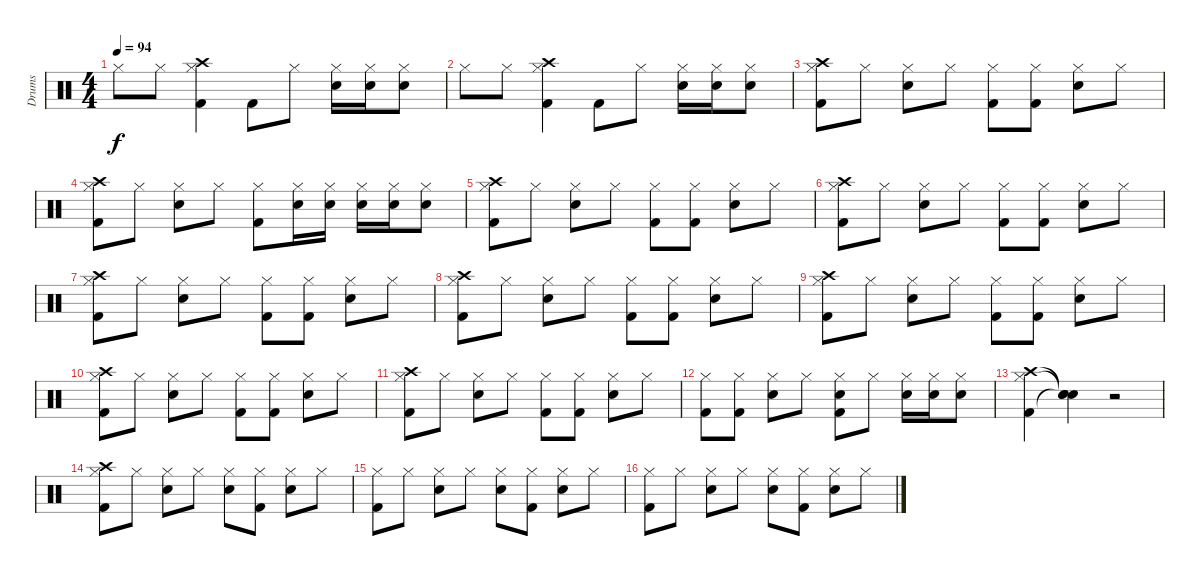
\track ("Drums" "Drums") {instrument percussion}
\staff {score}
\articulation defaults
\ts (4 4)
\tempo 94
\clef neutral
\ks c "Hi-Hat (closed)".8{dy f} "Hi-Hat (closed)".8
("Crash high (hit)" "Hi-Hat (closed)" "Kick (hit) 2").4 "Kick (hit) 2".8 "Hi-Hat (closed)".8 ("Hi-Hat (closed)" "Electric Snare (hit)").16 ("Hi-Hat (closed)" "Electric Snare (hit)").16 ("Hi-Hat (closed)" "Electric Snare (hit)").8 |
"Hi-Hat (closed)".8 "Hi-Hat (closed)".8 ("Crash high (hit)" "Hi-Hat (closed)" "Kick (hit) 2").4 "Kick (hit) 2".8 "Hi-Hat (closed)".8 ("Hi-Hat (closed)" "Electric Snare (hit)").16 ("Hi-Hat (closed)" "Electric Snare (hit)").16 ("Hi-Hat (closed)" "Electric Snare (hit)").8 |
("Crash high (hit)" "Hi-Hat (closed)" "Kick (hit) 2").8 "Hi-Hat (closed)".8 ("Hi-Hat (closed)" "Electric Snare (hit)").8 "Hi-Hat (closed)".8 ("Hi-Hat (closed)" "Kick (hit) 2").8 ("Hi-Hat (closed)" "Kick (hit) 2").8 ("Hi-Hat (closed)" "Electric Snare (hit)").8 "Hi-Hat (closed)".8 |
("Crash high (hit)" "Hi-Hat (closed)" "Kick (hit) 2").8 "Hi-Hat (closed)".8 ("Hi-Hat (closed)" "Electric Snare (hit)").8 "Hi-Hat (closed)".8 ("Hi-Hat (closed)" "Kick (hit) 2").8 ("Hi-Hat (closed)" "Electric Snare (hit)").16 ("Hi-Hat (closed)" "Electric Snare (hit)").16 ("Hi-Hat (closed)" "Electric Snare (hit)").16 ("Hi-Hat (closed)" "Electric Snare (hit)").16 ("Hi-Hat (closed)" "Electric Snare (hit)").8 |
("Crash high (hit)" "Hi-Hat (closed)" "Kick (hit) 2").8 "Hi-Hat (closed)".8 ("Hi-Hat (closed)" "Electric Snare (hit)").8 "Hi-Hat (closed)".8 ("Hi-Hat (closed)" "Kick (hit) 2").8 ("Hi-Hat (closed)" "Kick (hit) 2").8 ("Hi-Hat (closed)" "Electric Snare (hit)").8 "Hi-Hat (closed)".8 |
("Crash high (hit)" "Hi-Hat (closed)" "Kick (hit) 2").8 "Hi-Hat (closed)".8 ("Hi-Hat (closed)" "Electric Snare (hit)").8 "Hi-Hat (closed)".8 ("Hi-Hat (closed)" "Kick (hit) 2").8 ("Hi-Hat (closed)" "Kick (hit) 2").8 ("Hi-Hat (closed)" "Electric Snare (hit)").8 "Hi-Hat (closed)".8 |
("Crash high (hit)" "Hi-Hat (closed)" "Kick (hit) 2").8 "Hi-Hat (closed)".8 ("Hi-Hat (closed)" "Electric Snare (hit)").8 "Hi-Hat (closed)".8 ("Hi-Hat (closed)" "Kick (hit) 2").8 ("Hi-Hat (closed)" "Kick (hit) 2").8 ("Hi-Hat (closed)" "Electric Snare (hit)").8 "Hi-Hat (closed)".8 |
("Crash high (hit)" "Hi-Hat (closed)" "Kick (hit) 2").8 "Hi-Hat (closed)".8 ("Hi-Hat (closed)" "Electric Snare (hit)").8 "Hi-Hat (closed)".8 ("Hi-Hat (closed)" "Kick (hit) 2").8 ("Hi-Hat (closed)" "Kick (hit) 2").8 ("Hi-Hat (closed)" "Electric Snare (hit)").8 "Hi-Hat (closed)".8 |
("Crash high (hit)" "Hi-Hat (closed)" "Kick (hit) 2").8 "Hi-Hat (closed)".8 ("Hi-Hat (closed)" "Electric Snare (hit)").8 "Hi-Hat (closed)".8 ("Hi-Hat (closed)" "Kick (hit) 2").8 ("Hi-Hat (closed)" "Kick (hit) 2").8 ("Hi-Hat (closed)" "Electric Snare (hit)").8 "Hi-Hat (closed)".8 |
("Crash high (hit)" "Hi-Hat (closed)" "Kick (hit) 2").8 "Hi-Hat (closed)".8 ("Hi-Hat (closed)" "Electric Snare (hit)").8 "Hi-Hat (closed)".8 ("Hi-Hat (closed)" "Kick (hit) 2").8 ("Hi-Hat (closed)" "Kick (hit) 2").8 ("Hi-Hat (closed)" "Electric Snare (hit)").8 "Hi-Hat (closed)".8 |
("Crash high (hit)" "Hi-Hat (closed)" "Kick (hit) 2").8 "Hi-Hat (closed)".8 ("Hi-Hat (closed)" "Electric Snare (hit)").8 "Hi-Hat (closed)".8 ("Hi-Hat (closed)" "Kick (hit) 2").8 ("Hi-Hat (closed)" "Kick (hit) 2").8 ("Hi-Hat (closed)" "Electric Snare (hit)").8 "Hi-Hat (closed)".8 |
("Hi-Hat (closed)" "Kick (hit) 2").8 ("Hi-Hat (closed)" "Kick (hit) 2").8 ("Hi-Hat (closed)" "Electric Snare (hit)").8 "Hi-Hat (closed)".8 ("Hi-Hat (closed)" "Electric Snare (hit)" "Kick (hit) 2").8 "Hi-Hat (closed)".8 ("Hi-Hat (closed)" "Electric Snare (hit)").16 ("Hi-Hat (closed)" "Electric Snare (hit)").16 ("Hi-Hat (closed)" "Electric Snare (hit)").8 |
("Crash high (hit)" "Hi-Hat (closed)" "Kick (hit) 2").4 ("Snare (hit)"{t} "Snare (hit)"{t} "Snare (hit)"{t}).4 r.2 |
("Crash high (hit)" "Hi-Hat (closed)" "Kick (hit) 2").8 "Hi-Hat (closed)".8 ("Hi-Hat (closed)" "Electric Snare (hit)").8 "Hi-Hat (closed)".8 ("Hi-Hat (closed)" "Electric Snare (hit)").8 ("Hi-Hat (closed)" "Kick (hit) 2").8 ("Hi-Hat (closed)" "Electric Snare (hit)").8 "Hi-Hat (closed)".8 |
("Hi-Hat (closed)" "Kick (hit) 2").8 "Hi-Hat (closed)".8 ("Hi-Hat (closed)" "Electric Snare (hit)").8 "Hi-Hat (closed)".8 ("Hi-Hat (closed)" "Electric Snare (hit)").8 ("Hi-Hat (closed)" "Kick (hit) 2").8 ("Hi-Hat (closed)" "Electric Snare (hit)").8 "Hi-Hat (closed)".8 |
("Hi-Hat (closed)" "Kick (hit) 2").8 "Hi-Hat (closed)".8 ("Hi-Hat (closed)" "Electric Snare (hit)").8 "Hi-Hat (closed)".8 ("Hi-Hat (closed)" "Electric Snare (hit)").8 ("Hi-Hat (closed)" "Kick (hit) 2").8 ("Hi-Hat (closed)" "Electric Snare (hit)").8 "Hi-Hat (closed)".8
